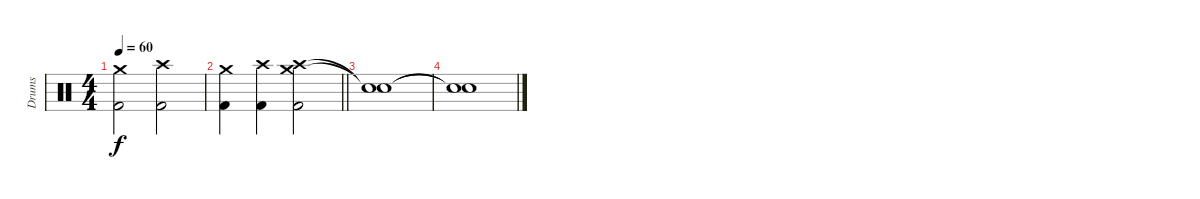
\track ("Drums" "Drums") {instrument percussion}
\staff {score}
\articulation defaults
\ts (4 4)
\tempo 60
\clef neutral
\ks c
("Crash medium (hit)" "Kick (hit) 2").2{dy f} ("Crash high (hit)" "Kick (hit) 2").2 |
\barLineRight lightlight
("Crash medium (hit)" "Kick (hit) 2").4 ("Crash high (hit)" "Kick (hit) 2").4 ("Crash medium (hit)" "Crash high (hit)" "Kick (hit) 2").2 |
("Snare (hit)"{t} "Snare (hit)"{t}).1{volume 0} |
("Snare (hit)"{t} "Snare (hit)"{t}).1
